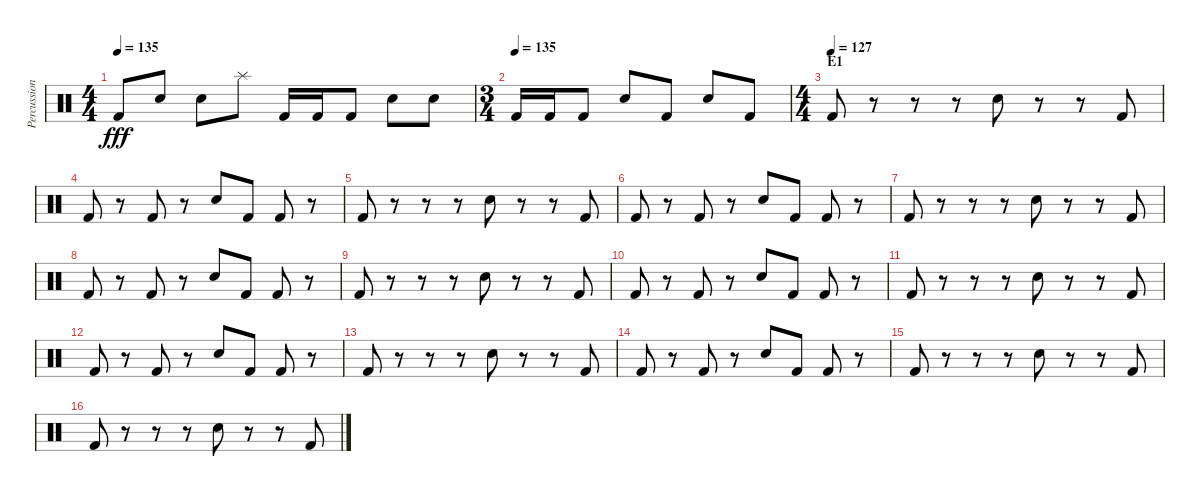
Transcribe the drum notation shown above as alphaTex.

\track ("Percussion" "Percussion") {instrument percussion}
\staff {score}
\articulation defaults
\ts (4 4)
\tempo 135
\clef neutral
\ks c "Kick (hit) 2".8{dy fff} "Electric Snare (hit)".8 "Electric Snare (hit)".8 "Splash (hit)".8 "Kick (hit) 2".16 "Kick (hit) 2".16 "Kick (hit) 2".8 "Electric Snare (hit)".8 "Electric Snare (hit)".8
|
\ts (3 4)
\tempo (135)
"Kick (hit) 2".16 "Kick (hit) 2".16 "Kick (hit) 2".8 "Electric Snare (hit)".8 "Kick (hit) 2".8 "Electric Snare (hit)".8 "Kick (hit) 2".8 |
\ts (4 4)
\section ("" "E1")
\tempo (127)
"Kick (hit) 2".8 r.8 r.8 r.8 "Electric Snare (hit)".8 r.8 r.8 "Kick (hit) 2".8 |
"Kick (hit) 2".8 r.8 "Kick (hit) 2".8 r.8 "Electric Snare (hit)".8 "Kick (hit) 2".8 "Kick (hit) 2".8 r.8 |
"Kick (hit) 2".8 r.8 r.8 r.8 "Electric Snare (hit)".8 r.8 r.8 "Kick (hit) 2".8 |
"Kick (hit) 2".8 r.8 "Kick (hit) 2".8 r.8 "Electric Snare (hit)".8 "Kick (hit) 2".8 "Kick (hit) 2".8 r.8 |
"Kick (hit) 2".8 r.8 r.8 r.8 "Electric Snare (hit)".8 r.8 r.8 "Kick (hit) 2".8 |
"Kick (hit) 2".8 r.8 "Kick (hit) 2".8 r.8 "Electric Snare (hit)".8 "Kick (hit) 2".8 "Kick (hit) 2".8 r.8 |
"Kick (hit) 2".8 r.8 r.8 r.8 "Electric Snare (hit)".8 r.8 r.8 "Kick (hit) 2".8 |
"Kick (hit) 2".8 r.8 "Kick (hit) 2".8 r.8 "Electric Snare (hit)".8 "Kick (hit) 2".8 "Kick (hit) 2".8 r.8 |
"Kick (hit) 2".8 r.8 r.8 r.8 "Electric Snare (hit)".8 r.8 r.8 "Kick (hit) 2".8 |
"Kick (hit) 2".8 r.8 "Kick (hit) 2".8 r.8 "Electric Snare (hit)".8 "Kick (hit) 2".8 "Kick (hit) 2".8 r.8 |
"Kick (hit) 2".8 r.8 r.8 r.8 "Electric Snare (hit)".8 r.8 r.8 "Kick (hit) 2".8 |
"Kick (hit) 2".8 r.8 "Kick (hit) 2".8 r.8 "Electric Snare (hit)".8 "Kick (hit) 2".8 "Kick (hit) 2".8 r.8 |
"Kick (hit) 2".8 r.8 r.8 r.8 "Electric Snare (hit)".8 r.8 r.8 "Kick (hit) 2".8 |
"Kick (hit) 2".8 r.8 r.8 r.8 "Electric Snare (hit)".8 r.8 r.8 "Kick (hit) 2".8
